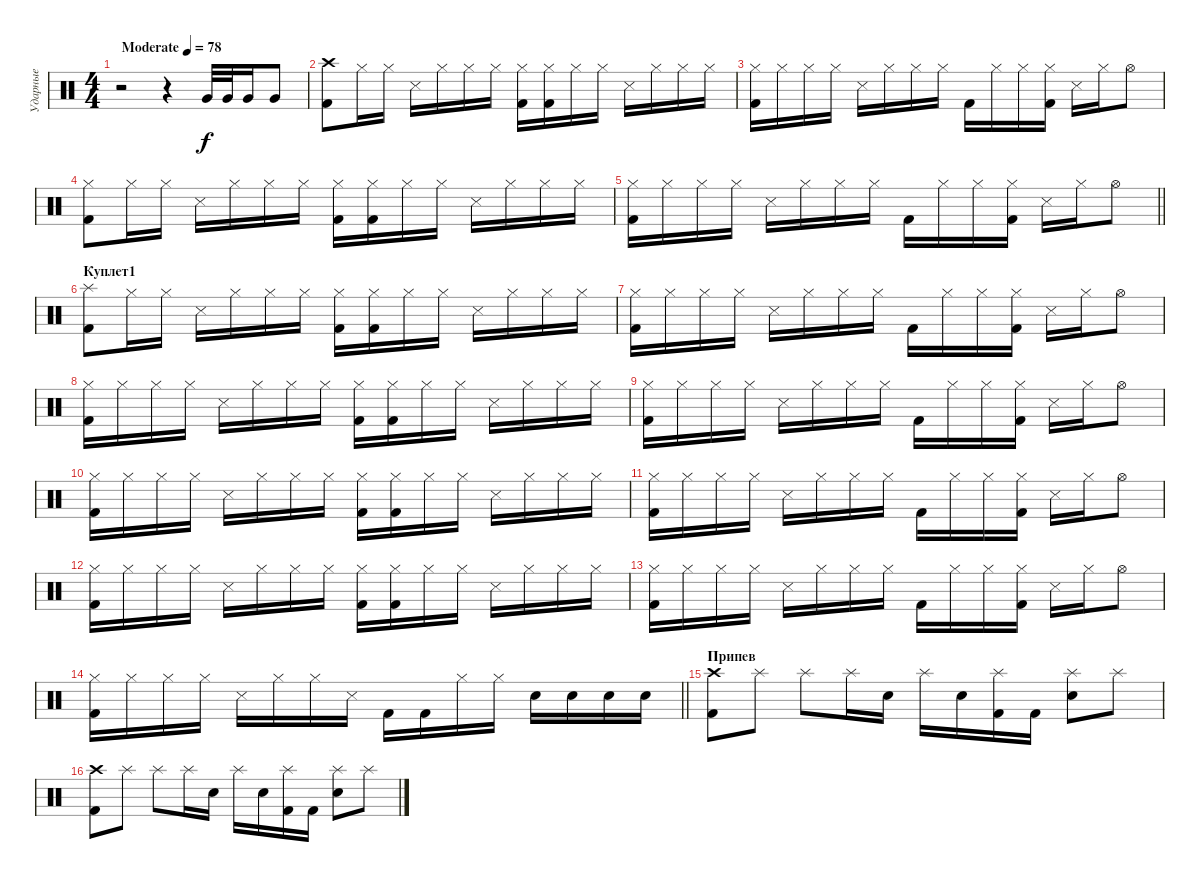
\track ("Ударные" "Ударные") {instrument percussion}
\staff {score}
\articulation defaults
\ts (4 4)
\tempo (78 "Moderate")
\clef neutral
\ks c
r.2{dy f} r.4 "Very Low Tom (hit)".32 "Very Low Tom (hit)".32 "Very Low Tom (hit)".16 "Very Low Tom (hit)".8 |
("Crash high (hit)" "Kick (hit) 2").8 "Hi-Hat (closed)".16 "Hi-Hat (closed)".16 "Snare (side stick) 3".16 "Hi-Hat (closed)".16 "Hi-Hat (closed)".16 "Hi-Hat (closed)".16 ("Kick (hit) 2" "Hi-Hat (closed)").16 ("Kick (hit) 2" "Hi-Hat (closed)").16 "Hi-Hat (closed)".16 "Hi-Hat (closed)".16 "Snare (side stick) 3".16 "Hi-Hat (closed)".16 "Hi-Hat (closed)".16 "Hi-Hat (closed)".16 |
("Kick (hit) 2" "Hi-Hat (closed)").16 "Hi-Hat (closed)".16 "Hi-Hat (closed)".16 "Hi-Hat (closed)".16 "Snare (side stick) 3".16 "Hi-Hat (closed)".16 "Hi-Hat (closed)".16 "Hi-Hat (closed)".16 "Kick (hit) 2".16 "Hi-Hat (closed)".16 "Hi-Hat (closed)".16 ("Kick (hit) 2" "Hi-Hat (closed)").16 "Snare (side stick) 3".16 "Hi-Hat (closed)".16 "Hi-Hat (open)".8 |
("Hi-Hat (closed)" "Kick (hit) 2").8 "Hi-Hat (closed)".16 "Hi-Hat (closed)".16 "Snare (side stick) 3".16 "Hi-Hat (closed)".16 "Hi-Hat (closed)".16 "Hi-Hat (closed)".16 ("Kick (hit) 2" "Hi-Hat (closed)").16 ("Kick (hit) 2" "Hi-Hat (closed)").16 "Hi-Hat (closed)".16 "Hi-Hat (closed)".16 "Snare (side stick) 3".16 "Hi-Hat (closed)".16 "Hi-Hat (closed)".16 "Hi-Hat (closed)".16 |
\barLineRight lightlight
("Kick (hit) 2" "Hi-Hat (closed)").16 "Hi-Hat (closed)".16 "Hi-Hat (closed)".16 "Hi-Hat (closed)".16 "Snare (side stick) 3".16 "Hi-Hat (closed)".16 "Hi-Hat (closed)".16 "Hi-Hat (closed)".16 "Kick (hit) 2".16 "Hi-Hat (closed)".16 "Hi-Hat (closed)".16 ("Kick (hit) 2" "Hi-Hat (closed)").16 "Snare (side stick) 3".16 "Hi-Hat (closed)".16 "Hi-Hat (open)".8 |
\section ("" "Куплет1")
("Kick (hit) 2" "Splash (hit)").8 "Hi-Hat (closed)".16 "Hi-Hat (closed)".16 "Snare (side stick) 3".16 "Hi-Hat (closed)".16 "Hi-Hat (closed)".16 "Hi-Hat (closed)".16 ("Kick (hit) 2" "Hi-Hat (closed)").16 ("Kick (hit) 2" "Hi-Hat (closed)").16 "Hi-Hat (closed)".16 "Hi-Hat (closed)".16 "Snare (side stick) 3".16 "Hi-Hat (closed)".16 "Hi-Hat (closed)".16 "Hi-Hat (closed)".16 |
("Kick (hit) 2" "Hi-Hat (closed)").16 "Hi-Hat (closed)".16 "Hi-Hat (closed)".16 "Hi-Hat (closed)".16 "Snare (side stick) 3".16 "Hi-Hat (closed)".16 "Hi-Hat (closed)".16 "Hi-Hat (closed)".16 "Kick (hit) 2".16 "Hi-Hat (closed)".16 "Hi-Hat (closed)".16 ("Kick (hit) 2" "Hi-Hat (closed)").16 "Snare (side stick) 3".16 "Hi-Hat (closed)".16 "Hi-Hat (open)".8 |
("Hi-Hat (closed)" "Kick (hit) 2").16 "Hi-Hat (closed)".16 "Hi-Hat (closed)".16 "Hi-Hat (closed)".16 "Snare (side stick) 3".16 "Hi-Hat (closed)".16 "Hi-Hat (closed)".16 "Hi-Hat (closed)".16 ("Kick (hit) 2" "Hi-Hat (closed)").16 ("Hi-Hat (closed)" "Kick (hit) 2").16 "Hi-Hat (closed)".16 "Hi-Hat (closed)".16 "Snare (side stick) 3".16 "Hi-Hat (closed)".16 "Hi-Hat (closed)".16 "Hi-Hat (closed)".16 |
("Kick (hit) 2" "Hi-Hat (closed)").16 "Hi-Hat (closed)".16 "Hi-Hat (closed)".16 "Hi-Hat (closed)".16 "Snare (side stick) 3".16 "Hi-Hat (closed)".16 "Hi-Hat (closed)".16 "Hi-Hat (closed)".16 "Kick (hit) 2".16 "Hi-Hat (closed)".16 "Hi-Hat (closed)".16 ("Kick (hit) 2" "Hi-Hat (closed)").16 "Snare (side stick) 3".16 "Hi-Hat (closed)".16 "Hi-Hat (open)".8 |
("Hi-Hat (closed)" "Kick (hit) 2").16 "Hi-Hat (closed)".16 "Hi-Hat (closed)".16 "Hi-Hat (closed)".16 "Snare (side stick) 3".16 "Hi-Hat (closed)".16 "Hi-Hat (closed)".16 "Hi-Hat (closed)".16 ("Kick (hit) 2" "Hi-Hat (closed)").16 ("Hi-Hat (closed)" "Kick (hit) 2").16 "Hi-Hat (closed)".16 "Hi-Hat (closed)".16 "Snare (side stick) 3".16 "Hi-Hat (closed)".16 "Hi-Hat (closed)".16 "Hi-Hat (closed)".16 |
("Kick (hit) 2" "Hi-Hat (closed)").16 "Hi-Hat (closed)".16 "Hi-Hat (closed)".16 "Hi-Hat (closed)".16 "Snare (side stick) 3".16 "Hi-Hat (closed)".16 "Hi-Hat (closed)".16 "Hi-Hat (closed)".16 "Kick (hit) 2".16 "Hi-Hat (closed)".16 "Hi-Hat (closed)".16 ("Kick (hit) 2" "Hi-Hat (closed)").16 "Snare (side stick) 3".16 "Hi-Hat (closed)".16 "Hi-Hat (open)".8 |
("Hi-Hat (closed)" "Kick (hit) 2").16 "Hi-Hat (closed)".16 "Hi-Hat (closed)".16 "Hi-Hat (closed)".16 "Snare (side stick) 3".16 "Hi-Hat (closed)".16 "Hi-Hat (closed)".16 "Hi-Hat (closed)".16 ("Kick (hit) 2" "Hi-Hat (closed)").16 ("Hi-Hat (closed)" "Kick (hit) 2").16 "Hi-Hat (closed)".16 "Hi-Hat (closed)".16 "Snare (side stick) 3".16 "Hi-Hat (closed)".16 "Hi-Hat (closed)".16 "Hi-Hat (closed)".16 |
("Kick (hit) 2" "Hi-Hat (closed)").16 "Hi-Hat (closed)".16 "Hi-Hat (closed)".16 "Hi-Hat (closed)".16 "Snare (side stick) 3".16 "Hi-Hat (closed)".16 "Hi-Hat (closed)".16 "Hi-Hat (closed)".16 "Kick (hit) 2".16 "Hi-Hat (closed)".16 "Hi-Hat (closed)".16 ("Kick (hit) 2" "Hi-Hat (closed)").16 "Snare (side stick) 3".16 "Hi-Hat (closed)".16 "Hi-Hat (open)".8 |
\barLineRight lightlight
("Kick (hit) 2" "Hi-Hat (closed)").16 "Hi-Hat (closed)".16 "Hi-Hat (closed)".16 "Hi-Hat (closed)".16 "Snare (side stick) 3".16 "Hi-Hat (closed)".16 "Hi-Hat (closed)".16 "Snare (side stick) 3".16 "Kick (hit) 2".16 "Kick (hit) 2".16 "Hi-Hat (closed)".16 "Hi-Hat (closed)".16 "Electric Snare (hit)".16 "Electric Snare (hit)".16 "Electric Snare (hit)".16 "Electric Snare (hit)".16 |
\section ("" "Припев")
("Crash high (hit)" "Kick (hit) 2").8 "Splash (hit)".8 "Splash (hit)".8 "Splash (hit)".16 "Electric Snare (hit)".16 "Splash (hit)".16 "Electric Snare (hit)".16 ("Splash (hit)" "Kick (hit) 2").16 "Kick (hit) 2".16 ("Splash (hit)" "Electric Snare (hit)").8 "Splash (hit)".8 |
("Crash high (hit)" "Kick (hit) 2").8 "Splash (hit)".8 "Splash (hit)".8 "Splash (hit)".16 "Electric Snare (hit)".16 "Splash (hit)".16 "Electric Snare (hit)".16 ("Splash (hit)" "Kick (hit) 2").16 "Kick (hit) 2".16 ("Splash (hit)" "Electric Snare (hit)").8 "Splash (hit)".8
